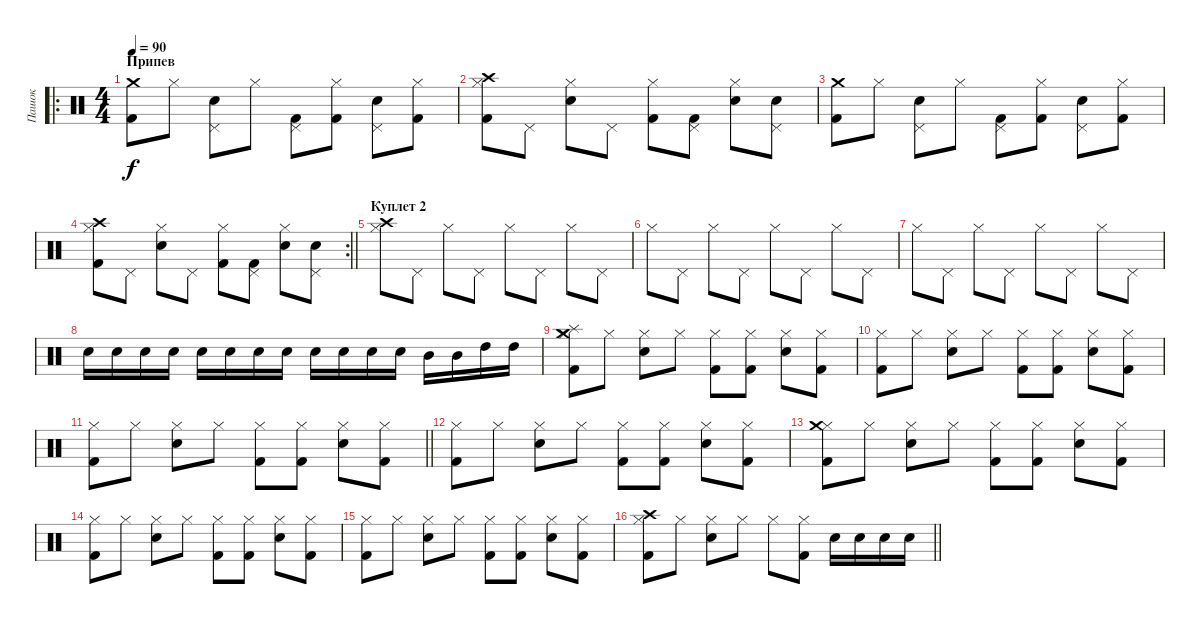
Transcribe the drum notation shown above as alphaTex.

\track ("Пашок" "Пашок") {instrument percussion}
\staff {score}
\articulation defaults
\ro
\ts (4 4)
\section ("" "Припев")
\tempo 90
\clef neutral
\ks c
("Kick (hit) 2" "Crash medium (hit)").8{dy f} "Hi-Hat (closed)".8 ("Pedal Hi-Hat (hit)" "Electric Snare (hit)").8 "Hi-Hat (closed)".8 ("Pedal Hi-Hat (hit)" "Kick (hit) 2").8 ("Hi-Hat (closed)" "Kick (hit) 2").8 ("Pedal Hi-Hat (hit)" "Electric Snare (hit)").8 ("Hi-Hat (closed)" "Kick (hit) 2").8 |
("Hi-Hat (closed)" "Kick (hit) 2" "Crash high (hit)").8 "Pedal Hi-Hat (hit)".8 ("Hi-Hat (closed)" "Electric Snare (hit)").8 "Pedal Hi-Hat (hit)".8 ("Hi-Hat (closed)" "Kick (hit) 2").8 ("Pedal Hi-Hat (hit)" "Kick (hit) 2").8 ("Hi-Hat (closed)" "Electric Snare (hit)").8 ("Pedal Hi-Hat (hit)" "Electric Snare (hit)").8 |
("Kick (hit) 2" "Crash medium (hit)").8 "Hi-Hat (closed)".8 ("Pedal Hi-Hat (hit)" "Electric Snare (hit)").8 "Hi-Hat (closed)".8 ("Pedal Hi-Hat (hit)" "Kick (hit) 2").8 ("Hi-Hat (closed)" "Kick (hit) 2").8 ("Pedal Hi-Hat (hit)" "Electric Snare (hit)").8 ("Hi-Hat (closed)" "Kick (hit) 2").8 |
\rc 2
\barLineRight lightlight
("Hi-Hat (closed)" "Kick (hit) 2" "Crash high (hit)").8 "Pedal Hi-Hat (hit)".8 ("Hi-Hat (closed)" "Electric Snare (hit)").8 "Pedal Hi-Hat (hit)".8 ("Hi-Hat (closed)" "Kick (hit) 2").8 ("Pedal Hi-Hat (hit)" "Kick (hit) 2").8 ("Hi-Hat (closed)" "Electric Snare (hit)").8 ("Pedal Hi-Hat (hit)" "Electric Snare (hit)").8 |
\section ("" "Куплет 2")
("Hi-Hat (closed)" "Crash high (hit)").8 "Pedal Hi-Hat (hit)".8 "Hi-Hat (closed)".8 "Pedal Hi-Hat (hit)".8 "Hi-Hat (closed)".8 "Pedal Hi-Hat (hit)".8 "Hi-Hat (closed)".8 "Pedal Hi-Hat (hit)".8 |
"Hi-Hat (closed)".8 "Pedal Hi-Hat (hit)".8 "Hi-Hat (closed)".8 "Pedal Hi-Hat (hit)".8 "Hi-Hat (closed)".8 "Pedal Hi-Hat (hit)".8 "Hi-Hat (closed)".8 "Pedal Hi-Hat (hit)".8 |
"Hi-Hat (closed)".8 "Pedal Hi-Hat (hit)".8 "Hi-Hat (closed)".8 "Pedal Hi-Hat (hit)".8 "Hi-Hat (closed)".8 "Pedal Hi-Hat (hit)".8 "Hi-Hat (closed)".8 "Pedal Hi-Hat (hit)".8 |
"Electric Snare (hit)".16 "Electric Snare (hit)".16 "Electric Snare (hit)".16 "Electric Snare (hit)".16 "Electric Snare (hit)".16 "Electric Snare (hit)".16 "Electric Snare (hit)".16 "Electric Snare (hit)".16 "Electric Snare (hit)".16 "Electric Snare (hit)".16 "Electric Snare (hit)".16 "Electric Snare (hit)".16 "Mid Tom (hit)".16 "Mid Tom (hit)".16 "High Tom (hit)".16 "High Tom (hit)".16 |
("Hi-Hat (closed)" "Kick (hit) 2" "Crash medium (hit)" "Splash (hit)").8 "Hi-Hat (closed)".8 ("Hi-Hat (closed)" "Electric Snare (hit)").8 "Hi-Hat (closed)".8 ("Hi-Hat (closed)" "Kick (hit) 2").8 ("Hi-Hat (closed)" "Kick (hit) 2").8 ("Hi-Hat (closed)" "Electric Snare (hit)").8 ("Hi-Hat (closed)" "Kick (hit) 2").8 |
("Hi-Hat (closed)" "Kick (hit) 2").8 "Hi-Hat (closed)".8 ("Hi-Hat (closed)" "Electric Snare (hit)").8 "Hi-Hat (closed)".8 ("Hi-Hat (closed)" "Kick (hit) 2").8 ("Hi-Hat (closed)" "Kick (hit) 2").8 ("Hi-Hat (closed)" "Electric Snare (hit)").8 ("Hi-Hat (closed)" "Kick (hit) 2").8 |
\barLineRight lightlight
("Hi-Hat (closed)" "Kick (hit) 2").8 "Hi-Hat (closed)".8 ("Hi-Hat (closed)" "Electric Snare (hit)").8 "Hi-Hat (closed)".8 ("Hi-Hat (closed)" "Kick (hit) 2").8 ("Hi-Hat (closed)" "Kick (hit) 2").8 ("Hi-Hat (closed)" "Electric Snare (hit)").8 ("Hi-Hat (closed)" "Kick (hit) 2").8 |
("Hi-Hat (closed)" "Kick (hit) 2").8 "Hi-Hat (closed)".8 ("Hi-Hat (closed)" "Electric Snare (hit)").8 "Hi-Hat (closed)".8 ("Hi-Hat (closed)" "Kick (hit) 2").8 ("Hi-Hat (closed)" "Kick (hit) 2").8 ("Hi-Hat (closed)" "Electric Snare (hit)").8 ("Hi-Hat (closed)" "Kick (hit) 2").8 |
("Hi-Hat (closed)" "Kick (hit) 2" "Crash medium (hit)").8 "Hi-Hat (closed)".8 ("Hi-Hat (closed)" "Electric Snare (hit)").8 "Hi-Hat (closed)".8 ("Hi-Hat (closed)" "Kick (hit) 2").8 ("Hi-Hat (closed)" "Kick (hit) 2").8 ("Hi-Hat (closed)" "Electric Snare (hit)").8 ("Hi-Hat (closed)" "Kick (hit) 2").8 |
("Hi-Hat (closed)" "Kick (hit) 2").8 "Hi-Hat (closed)".8 ("Hi-Hat (closed)" "Electric Snare (hit)").8 "Hi-Hat (closed)".8 ("Hi-Hat (closed)" "Kick (hit) 2").8 ("Hi-Hat (closed)" "Kick (hit) 2").8 ("Hi-Hat (closed)" "Electric Snare (hit)").8 ("Hi-Hat (closed)" "Kick (hit) 2").8 |
("Hi-Hat (closed)" "Kick (hit) 2").8 "Hi-Hat (closed)".8 ("Hi-Hat (closed)" "Electric Snare (hit)").8 "Hi-Hat (closed)".8 ("Hi-Hat (closed)" "Kick (hit) 2").8 ("Hi-Hat (closed)" "Kick (hit) 2").8 ("Hi-Hat (closed)" "Electric Snare (hit)").8 ("Hi-Hat (closed)" "Kick (hit) 2").8 |
\barLineRight lightlight
("Hi-Hat (closed)" "Kick (hit) 2" "Crash high (hit)").8 "Hi-Hat (closed)".8 ("Hi-Hat (closed)" "Electric Snare (hit)").8 "Hi-Hat (closed)".8 "Hi-Hat (closed)".8 ("Hi-Hat (closed)" "Kick (hit) 2").8 "Electric Snare (hit)".16 "Electric Snare (hit)".16 "Electric Snare (hit)".16 "Electric Snare (hit)".16
